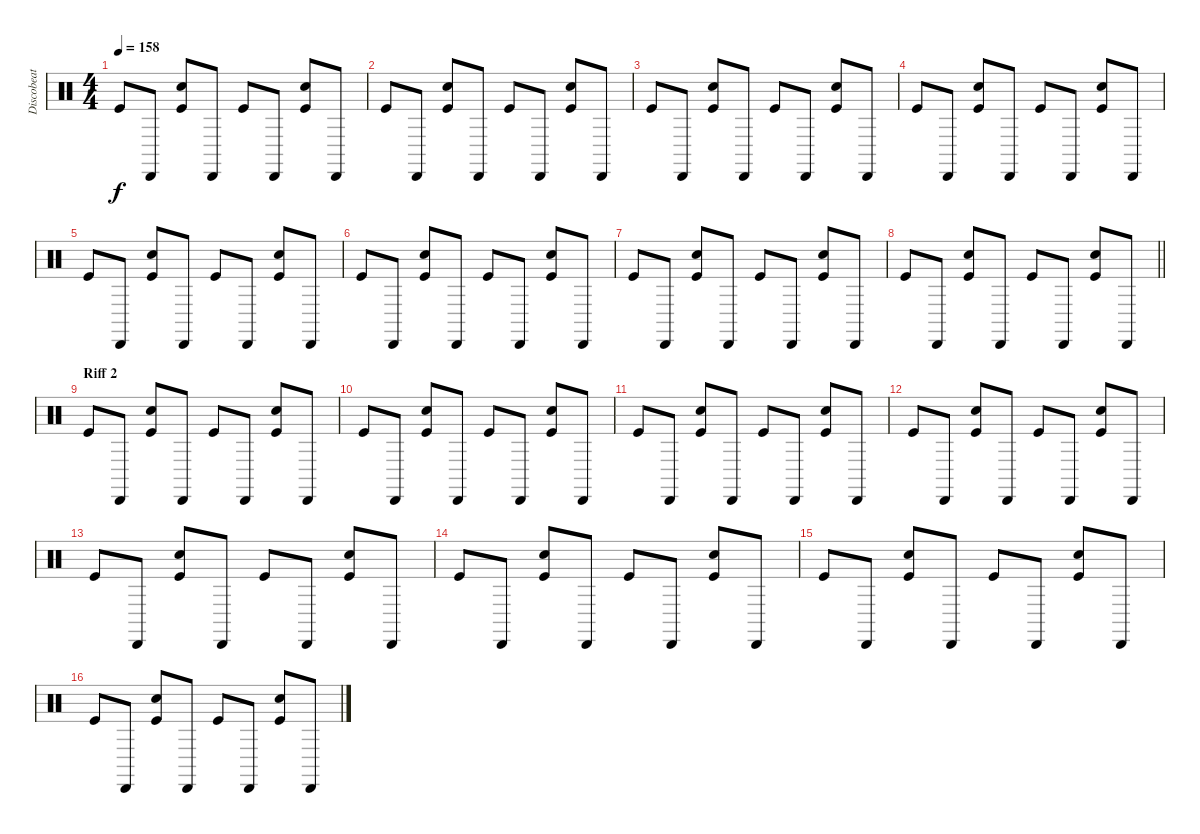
\track ("Discobeat" "Discobeat") {instrument percussion}
\staff {score}
\articulation defaults
\ts (4 4)
\tempo 158
\clef neutral
\ks c "Kick (hit)".8{dy f} "Cabasa (hit)".8
("Kick (hit)" "Electric Snare (hit)").8 "Cabasa (hit)".8 "Kick (hit)".8 "Cabasa (hit)".8 ("Kick (hit)" "Electric Snare (hit)").8 "Cabasa (hit)".8 |
"Kick (hit)".8 "Cabasa (hit)".8 ("Kick (hit)" "Electric Snare (hit)").8 "Cabasa (hit)".8 "Kick (hit)".8 "Cabasa (hit)".8 ("Kick (hit)" "Electric Snare (hit)").8 "Cabasa (hit)".8 |
"Kick (hit)".8 "Cabasa (hit)".8 ("Kick (hit)" "Electric Snare (hit)").8 "Cabasa (hit)".8 "Kick (hit)".8 "Cabasa (hit)".8 ("Kick (hit)" "Electric Snare (hit)").8 "Cabasa (hit)".8 |
"Kick (hit)".8 "Cabasa (hit)".8 ("Kick (hit)" "Electric Snare (hit)").8 "Cabasa (hit)".8 "Kick (hit)".8 "Cabasa (hit)".8 ("Kick (hit)" "Electric Snare (hit)").8 "Cabasa (hit)".8 |
"Kick (hit)".8 "Cabasa (hit)".8 ("Kick (hit)" "Electric Snare (hit)").8 "Cabasa (hit)".8 "Kick (hit)".8 "Cabasa (hit)".8 ("Kick (hit)" "Electric Snare (hit)").8 "Cabasa (hit)".8 |
"Kick (hit)".8 "Cabasa (hit)".8 ("Kick (hit)" "Electric Snare (hit)").8 "Cabasa (hit)".8 "Kick (hit)".8 "Cabasa (hit)".8 ("Kick (hit)" "Electric Snare (hit)").8 "Cabasa (hit)".8 |
"Kick (hit)".8 "Cabasa (hit)".8 ("Kick (hit)" "Electric Snare (hit)").8 "Cabasa (hit)".8 "Kick (hit)".8 "Cabasa (hit)".8 ("Kick (hit)" "Electric Snare (hit)").8 "Cabasa (hit)".8 |
\barLineRight lightlight "Kick (hit)".8 "Cabasa (hit)".8
("Kick (hit)" "Electric Snare (hit)").8 "Cabasa (hit)".8 "Kick (hit)".8 "Cabasa (hit)".8 ("Kick (hit)" "Electric Snare (hit)").8 "Cabasa (hit)".8 |
\section ("" "Riff 2")
"Kick (hit)".8 "Cabasa (hit)".8 ("Kick (hit)" "Electric Snare (hit)").8 "Cabasa (hit)".8 "Kick (hit)".8 "Cabasa (hit)".8 ("Kick (hit)" "Electric Snare (hit)").8 "Cabasa (hit)".8 |
"Kick (hit)".8 "Cabasa (hit)".8 ("Kick (hit)" "Electric Snare (hit)").8 "Cabasa (hit)".8 "Kick (hit)".8 "Cabasa (hit)".8 ("Kick (hit)" "Electric Snare (hit)").8 "Cabasa (hit)".8 |
"Kick (hit)".8 "Cabasa (hit)".8 ("Kick (hit)" "Electric Snare (hit)").8 "Cabasa (hit)".8 "Kick (hit)".8 "Cabasa (hit)".8 ("Kick (hit)" "Electric Snare (hit)").8 "Cabasa (hit)".8 |
"Kick (hit)".8 "Cabasa (hit)".8 ("Kick (hit)" "Electric Snare (hit)").8 "Cabasa (hit)".8 "Kick (hit)".8 "Cabasa (hit)".8 ("Kick (hit)" "Electric Snare (hit)").8 "Cabasa (hit)".8 |
"Kick (hit)".8 "Cabasa (hit)".8 ("Kick (hit)" "Electric Snare (hit)").8 "Cabasa (hit)".8 "Kick (hit)".8 "Cabasa (hit)".8 ("Kick (hit)" "Electric Snare (hit)").8 "Cabasa (hit)".8 |
"Kick (hit)".8 "Cabasa (hit)".8 ("Kick (hit)" "Electric Snare (hit)").8 "Cabasa (hit)".8 "Kick (hit)".8 "Cabasa (hit)".8 ("Kick (hit)" "Electric Snare (hit)").8 "Cabasa (hit)".8 |
"Kick (hit)".8 "Cabasa (hit)".8 ("Kick (hit)" "Electric Snare (hit)").8 "Cabasa (hit)".8 "Kick (hit)".8 "Cabasa (hit)".8 ("Kick (hit)" "Electric Snare (hit)").8 "Cabasa (hit)".8 |
"Kick (hit)".8 "Cabasa (hit)".8 ("Kick (hit)" "Electric Snare (hit)").8 "Cabasa (hit)".8 "Kick (hit)".8 "Cabasa (hit)".8 ("Kick (hit)" "Electric Snare (hit)").8 "Cabasa (hit)".8
